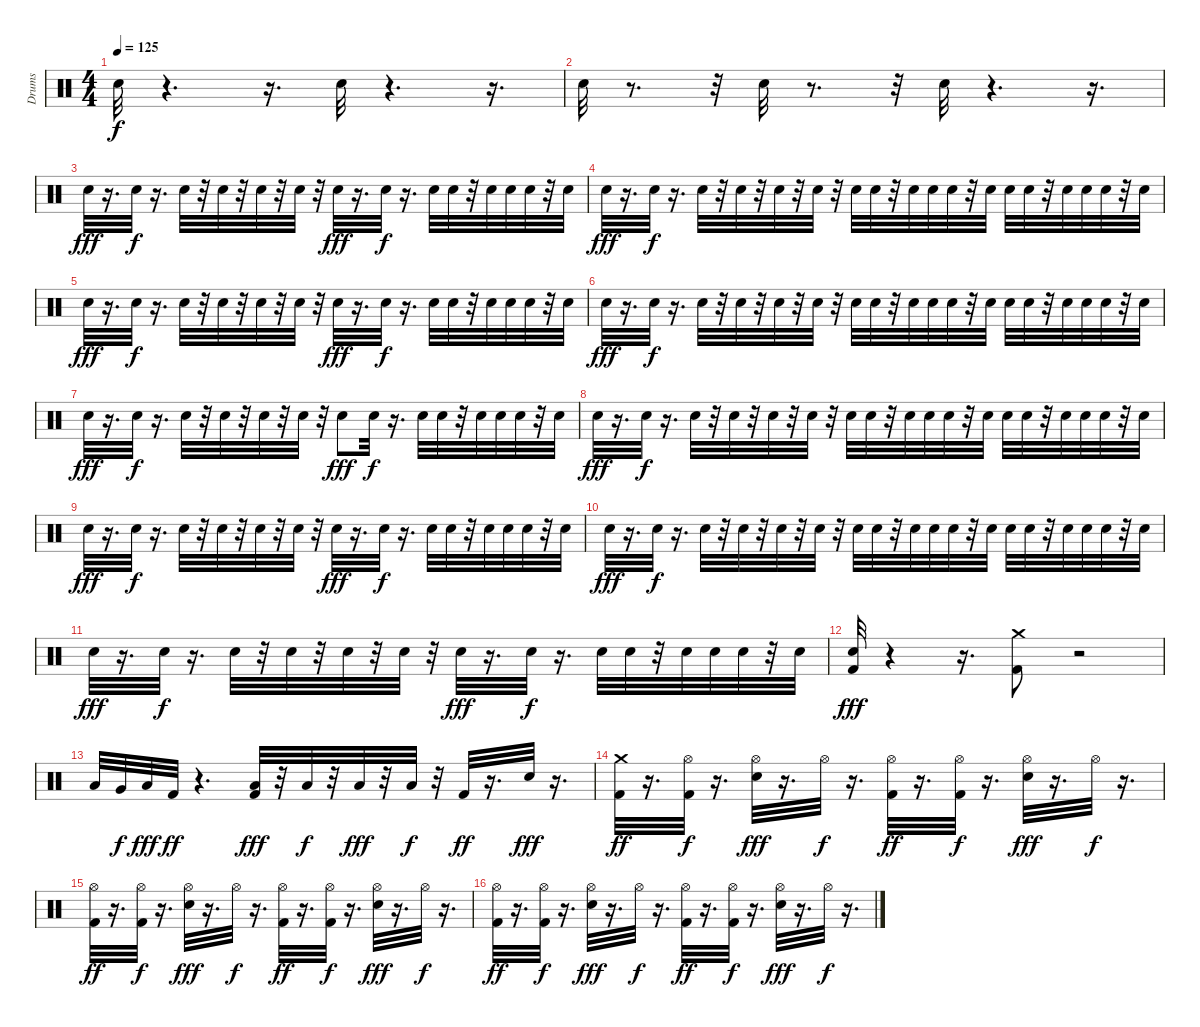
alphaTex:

\track ("Drums" "Drums") {instrument percussion}
\staff {score}
\articulation defaults
\ts (4 4)
\tempo 125
\clef neutral
\ks c "Hand Clap (hit)".32{dy f}
r.4{d} r.16{d} "Hand Clap (hit)".32 r.4{d} r.16{d} |
"Hand Clap (hit)".32 r.8{d} r.32 "Hand Clap (hit)".32 r.8{d} r.32 "Hand Clap (hit)".32 r.4{d} r.16{d} |
"Snare (hit) 2".32{dy fff} r.16{d} "Snare (hit) 2".32{dy f} r.16{d} "Snare (hit) 2".32 r.32 "Snare (hit) 2".32{volume 13} r.32 "Snare (hit) 2".32{volume 14} r.32 "Snare (hit) 2".32{volume 15} r.32 "Snare (hit) 2".32{dy fff volume 16} r.16{d} "Snare (hit) 2".32{dy f} r.16{d} "Snare (hit) 2".32 "Snare (hit) 2".32{volume 12} r.32 "Snare (hit) 2".32{volume 13} "Snare (hit) 2".32{volume 14} "Snare (hit) 2".32{volume 14} r.32 "Snare (hit) 2".32{volume 15} |
"Snare (hit) 2".32{dy fff volume 16} r.16{d} "Snare (hit) 2".32{dy f} r.16{d} "Snare (hit) 2".32{volume 12} r.32 "Snare (hit) 2".32{volume 14} r.32 "Snare (hit) 2".32{volume 14} r.32 "Snare (hit) 2".32{volume 15} r.32 "Snare (hit) 2".32{volume 16} "Snare (hit) 2".32{volume 12} r.32 "Snare (hit) 2".32{volume 12} "Snare (hit) 2".32{volume 13} "Snare (hit) 2".32{volume 13} r.32 "Snare (hit) 2".32{volume 13} "Snare (hit) 2".32{volume 14} "Snare (hit) 2".32{volume 14} r.32 "Snare (hit) 2".32{volume 14} "Snare (hit) 2".32{volume 14} "Snare (hit) 2".32{volume 15} r.32 "Snare (hit) 2".32{volume 16} |
"Snare (hit) 2".32{dy fff volume 16} r.16{d} "Snare (hit) 2".32{dy f} r.16{d} "Snare (hit) 2".32 r.32 "Snare (hit) 2".32{volume 13} r.32 "Snare (hit) 2".32{volume 14} r.32 "Snare (hit) 2".32{volume 15} r.32 "Snare (hit) 2".32{dy fff volume 16} r.16{d} "Snare (hit) 2".32{dy f} r.16{d} "Snare (hit) 2".32 "Snare (hit) 2".32{volume 12} r.32 "Snare (hit) 2".32{volume 13} "Snare (hit) 2".32{volume 14} "Snare (hit) 2".32{volume 14} r.32 "Snare (hit) 2".32{volume 15} |
"Snare (hit) 2".32{dy fff volume 16} r.16{d} "Snare (hit) 2".32{dy f} r.16{d} "Snare (hit) 2".32{volume 12} r.32 "Snare (hit) 2".32{volume 14} r.32 "Snare (hit) 2".32{volume 14} r.32 "Snare (hit) 2".32{volume 15} r.32 "Snare (hit) 2".32{volume 16} "Snare (hit) 2".32{volume 12} r.32 "Snare (hit) 2".32{volume 12} "Snare (hit) 2".32{volume 13} "Snare (hit) 2".32{volume 13} r.32 "Snare (hit) 2".32{volume 13} "Snare (hit) 2".32{volume 14} "Snare (hit) 2".32{volume 14} r.32 "Snare (hit) 2".32{volume 14} "Snare (hit) 2".32{volume 14} "Snare (hit) 2".32{volume 15} r.32 "Snare (hit) 2".32{volume 16} |
"Snare (hit) 2".32{dy fff volume 16} r.16{d} "Snare (hit) 2".32{dy f} r.16{d} "Snare (hit) 2".32 r.32 "Snare (hit) 2".32{volume 13} r.32 "Snare (hit) 2".32{volume 14} r.32 "Snare (hit) 2".32{volume 15} r.32 "Snare (hit) 2".8{dy fff volume 16} "Snare (hit) 2".32{dy f} r.16{d} "Snare (hit) 2".32 "Snare (hit) 2".32{volume 12} r.32 "Snare (hit) 2".32{volume 13} "Snare (hit) 2".32{volume 14} "Snare (hit) 2".32{volume 14} r.32 "Snare (hit) 2".32{volume 15} |
"Snare (hit) 2".32{dy fff volume 16} r.16{d} "Snare (hit) 2".32{dy f} r.16{d} "Snare (hit) 2".32{volume 12} r.32 "Snare (hit) 2".32{volume 14} r.32 "Snare (hit) 2".32{volume 14} r.32 "Snare (hit) 2".32{volume 15} r.32 "Snare (hit) 2".32{volume 16} "Snare (hit) 2".32{volume 12} r.32 "Snare (hit) 2".32{volume 12} "Snare (hit) 2".32{volume 13} "Snare (hit) 2".32{volume 13} r.32 "Snare (hit) 2".32{volume 13} "Snare (hit) 2".32{volume 14} "Snare (hit) 2".32{volume 14} r.32 "Snare (hit) 2".32{volume 14} "Snare (hit) 2".32{volume 14} "Snare (hit) 2".32{volume 15} r.32 "Snare (hit) 2".32{volume 16} |
"Snare (hit) 2".32{dy fff volume 16} r.16{d} "Snare (hit) 2".32{dy f} r.16{d} "Snare (hit) 2".32 r.32 "Snare (hit) 2".32{volume 13} r.32 "Snare (hit) 2".32{volume 14} r.32 "Snare (hit) 2".32{volume 15} r.32 "Snare (hit) 2".32{dy fff volume 16} r.16{d} "Snare (hit) 2".32{dy f} r.16{d} "Snare (hit) 2".32 "Snare (hit) 2".32{volume 12} r.32 "Snare (hit) 2".32{volume 13} "Snare (hit) 2".32{volume 14} "Snare (hit) 2".32{volume 14} r.32 "Snare (hit) 2".32{volume 15} |
"Snare (hit) 2".32{dy fff volume 16} r.16{d} "Snare (hit) 2".32{dy f} r.16{d} "Snare (hit) 2".32{volume 12} r.32 "Snare (hit) 2".32{volume 14} r.32 "Snare (hit) 2".32{volume 14} r.32 "Snare (hit) 2".32{volume 15} r.32 "Snare (hit) 2".32{volume 16} "Snare (hit) 2".32{volume 12} r.32 "Snare (hit) 2".32{volume 12} "Snare (hit) 2".32{volume 13} "Snare (hit) 2".32{volume 13} r.32 "Snare (hit) 2".32{volume 13} "Snare (hit) 2".32{volume 14} "Snare (hit) 2".32{volume 14} r.32 "Snare (hit) 2".32{volume 14} "Snare (hit) 2".32{volume 14} "Snare (hit) 2".32{volume 15} r.32 "Snare (hit) 2".32{volume 16} |
"Snare (hit) 2".32{dy fff volume 16} r.16{d} "Snare (hit) 2".32{dy f} r.16{d} "Snare (hit) 2".32 r.32 "Snare (hit) 2".32{volume 13} r.32 "Snare (hit) 2".32{volume 14} r.32 "Snare (hit) 2".32{volume 15} r.32 "Snare (hit) 2".32{dy fff volume 16} r.16{d} "Snare (hit) 2".32{dy f} r.16{d} "Snare (hit) 2".32 "Snare (hit) 2".32{volume 12} r.32 "Snare (hit) 2".32{volume 13} "Snare (hit) 2".32{volume 14} "Snare (hit) 2".32{volume 14} r.32 "Snare (hit) 2".32{volume 15} |
("Kick (hit) 2" "Snare (hit) 2").32{dy fff volume 16} r.4 r.16{d} ("Kick (hit) 2" "Crash medium (hit)").8 r.2 |
"Low Tom (hit)".32 "Very Low Tom (hit)".32{dy f} "Low Floor Tom (hit)".32{dy fff} "Kick (hit) 2".32{dy ff} r.4{d} ("Kick (hit) 2" "Low Tom (hit)").32{dy fff} r.32 "Low Tom (hit)".32{dy f} r.32 "Low Floor Tom (hit)".32{dy fff} r.32 "Low Floor Tom (hit)".32{dy f} r.32 "Kick (hit) 2".32{dy ff} r.16{d} "Snare (hit) 2".32{dy fff} r.16{d} |
("Crash medium (hit)" "Kick (hit) 2").32{dy ff} r.16{d} ("Kick (hit) 2" "Hi-Hat (open)").32{dy f} r.16{d} ("Snare (hit) 2" "Hi-Hat (open)").32{dy fff} r.16{d} "Hi-Hat (open)".32{dy f} r.16{d} ("Kick (hit) 2" "Hi-Hat (open)").32{dy ff} r.16{d} ("Kick (hit) 2" "Hi-Hat (open)").32{dy f} r.16{d} ("Snare (hit) 2" "Hi-Hat (open)").32{dy fff} r.16{d} "Hi-Hat (open)".32{dy f} r.16{d} |
("Kick (hit) 2" "Hi-Hat (open)").32{dy ff} r.16{d} ("Kick (hit) 2" "Hi-Hat (open)").32{dy f} r.16{d} ("Snare (hit) 2" "Hi-Hat (open)").32{dy fff} r.16{d} "Hi-Hat (open)".32{dy f} r.16{d} ("Kick (hit) 2" "Hi-Hat (open)").32{dy ff} r.16{d} ("Kick (hit) 2" "Hi-Hat (open)").32{dy f} r.16{d} ("Snare (hit) 2" "Hi-Hat (open)").32{dy fff} r.16{d} "Hi-Hat (open)".32{dy f} r.16{d} |
("Kick (hit) 2" "Hi-Hat (open)").32{dy ff} r.16{d} ("Kick (hit) 2" "Hi-Hat (open)").32{dy f} r.16{d} ("Snare (hit) 2" "Hi-Hat (open)").32{dy fff} r.16{d} "Hi-Hat (open)".32{dy f} r.16{d} ("Kick (hit) 2" "Hi-Hat (open)").32{dy ff} r.16{d} ("Kick (hit) 2" "Hi-Hat (open)").32{dy f} r.16{d} ("Snare (hit) 2" "Hi-Hat (open)").32{dy fff} r.16{d} "Hi-Hat (open)".32{dy f} r.16{d}
